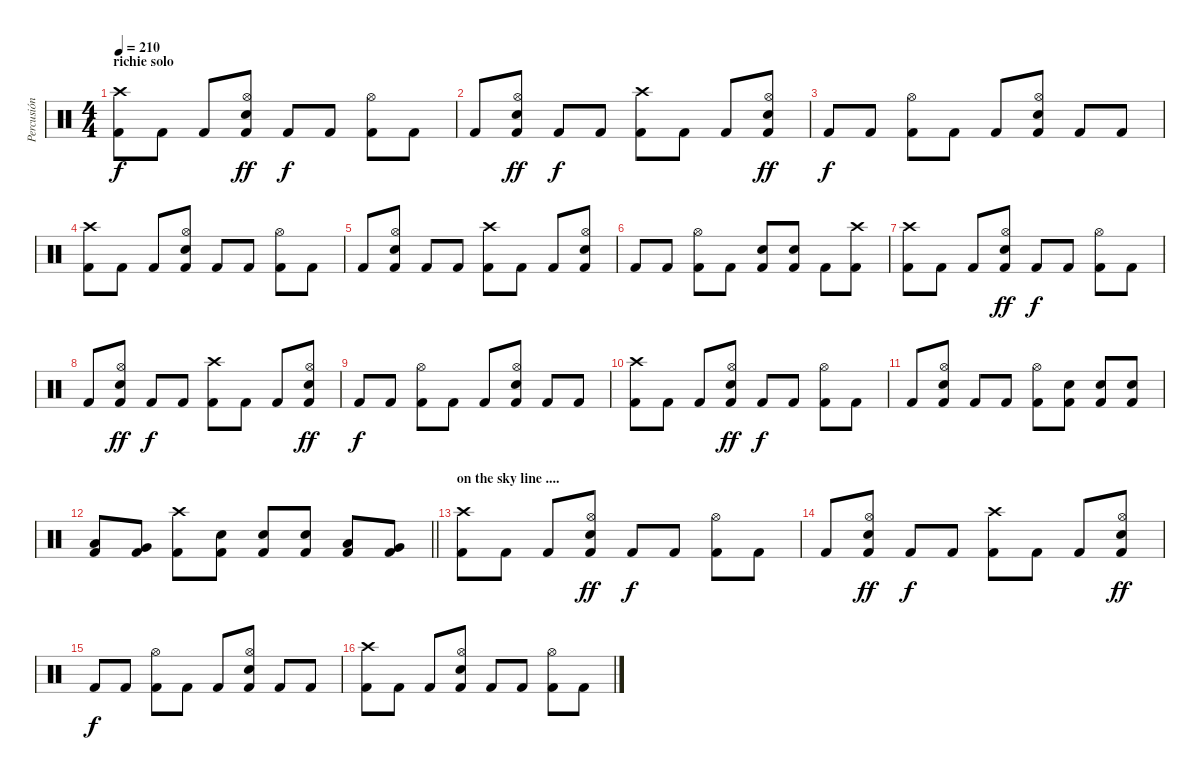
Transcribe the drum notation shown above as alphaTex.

\track ("Percusión" "Percusión") {instrument percussion}
\staff {score}
\articulation defaults
\ts (4 4)
\section ("" "richie solo")
\tempo 210
\clef neutral
\ks c
("Crash high (hit)" "Kick (hit) 2").8{dy f} "Kick (hit) 2".8 "Kick (hit) 2".8 ("Hi-Hat (open)" "Snare (hit) 2" "Kick (hit) 2").8{dy ff} "Kick (hit) 2".8{dy f} "Kick (hit) 2".8 ("Hi-Hat (open)" "Kick (hit) 2").8 "Kick (hit) 2".8 |
"Kick (hit) 2".8 ("Hi-Hat (open)" "Snare (hit) 2" "Kick (hit) 2").8{dy ff} "Kick (hit) 2".8{dy f} "Kick (hit) 2".8 ("Crash high (hit)" "Kick (hit) 2").8 "Kick (hit) 2".8 "Kick (hit) 2".8 ("Hi-Hat (open)" "Snare (hit) 2" "Kick (hit) 2").8{dy ff} |
"Kick (hit) 2".8{dy f} "Kick (hit) 2".8 ("Hi-Hat (open)" "Kick (hit) 2").8 "Kick (hit) 2".8 "Kick (hit) 2".8 ("Hi-Hat (open)" "Snare (hit) 2" "Kick (hit) 2").8 "Kick (hit) 2".8 "Kick (hit) 2".8 |
("Crash high (hit)" "Kick (hit) 2").8 "Kick (hit) 2".8 "Kick (hit) 2".8 ("Hi-Hat (open)" "Snare (hit) 2" "Kick (hit) 2").8 "Kick (hit) 2".8 "Kick (hit) 2".8 ("Hi-Hat (open)" "Kick (hit) 2").8 "Kick (hit) 2".8 |
"Kick (hit) 2".8 ("Hi-Hat (open)" "Snare (hit) 2" "Kick (hit) 2").8 "Kick (hit) 2".8 "Kick (hit) 2".8 ("Crash high (hit)" "Kick (hit) 2").8 "Kick (hit) 2".8 "Kick (hit) 2".8 ("Hi-Hat (open)" "Snare (hit) 2" "Kick (hit) 2").8 |
"Kick (hit) 2".8 "Kick (hit) 2".8 ("Hi-Hat (open)" "Kick (hit) 2").8 "Kick (hit) 2".8 ("Electric Snare (hit)" "Kick (hit) 2").8 ("Electric Snare (hit)" "Kick (hit) 2").8 "Kick (hit) 2".8 ("Crash high (hit)" "Kick (hit) 2").8 |
("Crash high (hit)" "Kick (hit) 2").8 "Kick (hit) 2".8 "Kick (hit) 2".8 ("Hi-Hat (open)" "Snare (hit) 2" "Kick (hit) 2").8{dy ff} "Kick (hit) 2".8{dy f} "Kick (hit) 2".8 ("Hi-Hat (open)" "Kick (hit) 2").8 "Kick (hit) 2".8 |
"Kick (hit) 2".8 ("Hi-Hat (open)" "Snare (hit) 2" "Kick (hit) 2").8{dy ff} "Kick (hit) 2".8{dy f} "Kick (hit) 2".8 ("Crash high (hit)" "Kick (hit) 2").8 "Kick (hit) 2".8 "Kick (hit) 2".8 ("Hi-Hat (open)" "Snare (hit) 2" "Kick (hit) 2").8{dy ff} |
"Kick (hit) 2".8{dy f} "Kick (hit) 2".8 ("Hi-Hat (open)" "Kick (hit) 2").8 "Kick (hit) 2".8 "Kick (hit) 2".8 ("Hi-Hat (open)" "Snare (hit) 2" "Kick (hit) 2").8 "Kick (hit) 2".8 "Kick (hit) 2".8 |
("Crash high (hit)" "Kick (hit) 2").8 "Kick (hit) 2".8 "Kick (hit) 2".8 ("Hi-Hat (open)" "Snare (hit) 2" "Kick (hit) 2").8{dy ff} "Kick (hit) 2".8{dy f} "Kick (hit) 2".8 ("Hi-Hat (open)" "Kick (hit) 2").8 "Kick (hit) 2".8 |
"Kick (hit) 2".8 ("Hi-Hat (open)" "Snare (hit) 2" "Kick (hit) 2").8 "Kick (hit) 2".8 "Kick (hit) 2".8 ("Hi-Hat (open)" "Kick (hit) 2").8 ("Electric Snare (hit)" "Kick (hit) 2").8 ("Electric Snare (hit)" "Kick (hit) 2").8 ("Electric Snare (hit)" "Kick (hit) 2").8 |
\barLineRight lightlight
("Low Tom (hit)" "Kick (hit) 2").8 ("Very Low Tom (hit)" "Kick (hit) 2").8 ("Crash high (hit)" "Kick (hit) 2").8 ("Electric Snare (hit)" "Kick (hit) 2").8 ("Electric Snare (hit)" "Kick (hit) 2").8 ("Electric Snare (hit)" "Kick (hit) 2").8 ("Low Tom (hit)" "Kick (hit) 2").8 ("Very Low Tom (hit)" "Kick (hit) 2").8 |
\section ("" "on the sky line ....")
("Crash high (hit)" "Kick (hit) 2").8 "Kick (hit) 2".8 "Kick (hit) 2".8 ("Hi-Hat (open)" "Snare (hit) 2" "Kick (hit) 2").8{dy ff} "Kick (hit) 2".8{dy f} "Kick (hit) 2".8 ("Hi-Hat (open)" "Kick (hit) 2").8 "Kick (hit) 2".8 |
"Kick (hit) 2".8 ("Hi-Hat (open)" "Snare (hit) 2" "Kick (hit) 2").8{dy ff} "Kick (hit) 2".8{dy f} "Kick (hit) 2".8 ("Crash high (hit)" "Kick (hit) 2").8 "Kick (hit) 2".8 "Kick (hit) 2".8 ("Hi-Hat (open)" "Snare (hit) 2" "Kick (hit) 2").8{dy ff} |
"Kick (hit) 2".8{dy f} "Kick (hit) 2".8 ("Hi-Hat (open)" "Kick (hit) 2").8 "Kick (hit) 2".8 "Kick (hit) 2".8 ("Hi-Hat (open)" "Snare (hit) 2" "Kick (hit) 2").8 "Kick (hit) 2".8 "Kick (hit) 2".8 |
("Crash high (hit)" "Kick (hit) 2").8 "Kick (hit) 2".8 "Kick (hit) 2".8 ("Hi-Hat (open)" "Snare (hit) 2" "Kick (hit) 2").8 "Kick (hit) 2".8 "Kick (hit) 2".8 ("Hi-Hat (open)" "Kick (hit) 2").8 "Kick (hit) 2".8
